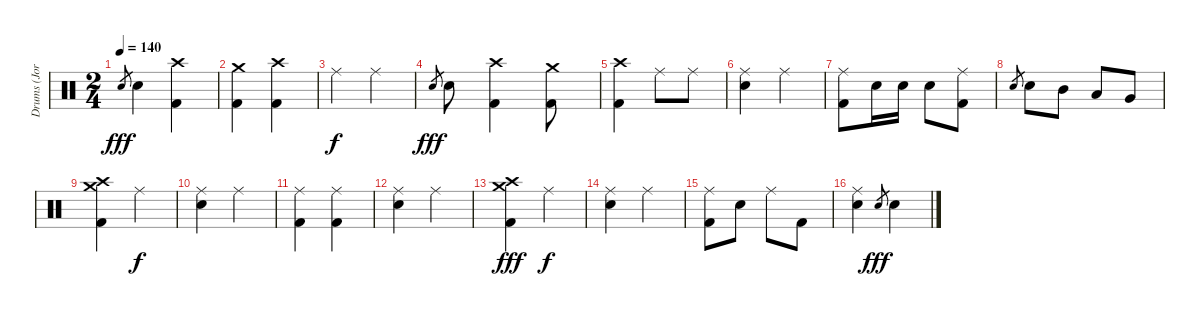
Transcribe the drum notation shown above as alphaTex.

\track ("Drums (Jordan Hastings)" "Drums (Jor") {instrument percussion}
\staff {score}
\articulation defaults
\ts (2 4)
\tempo 140
\clef neutral
\ks c "Electric Snare (hit)".8{gr dy fff} "Electric Snare (hit)".4
("Crash high (hit)" "Kick (hit) 2").4 |
("Crash medium (hit)" "Kick (hit) 2").4 ("Crash high (hit)" "Kick (hit) 2").4 |
"Ride (middle)".4{dy f} "Ride (middle)".4 |
"Electric Snare (hit)".8{gr dy fff} "Electric Snare (hit)".8 ("Crash high (hit)" "Kick (hit) 2").4 ("Crash medium (hit)" "Kick (hit) 2").8 |
("Crash high (hit)" "Kick (hit) 2").4 "Ride (middle)".8 "Ride (middle)".8 |
("Ride (middle)" "Electric Snare (hit)").4 "Ride (middle)".4 |
("Ride (middle)" "Kick (hit) 2").8 "Electric Snare (hit)".16 "Electric Snare (hit)".16 "Electric Snare (hit)".8 ("Ride (middle)" "Kick (hit) 2").8 |
"Electric Snare (hit)".8{gr} "Electric Snare (hit)".8 "Mid Tom (hit)".8 "Low Tom (hit)".8 "Very Low Tom (hit)".8 |
("Crash medium (hit)" "Crash high (hit)" "Kick (hit) 2").4 "Ride (middle)".4{dy f} |
("Ride (middle)" "Electric Snare (hit)").4 "Ride (middle)".4 |
("Ride (middle)" "Kick (hit) 2").4 ("Ride (middle)" "Kick (hit) 2").4 |
("Ride (middle)" "Electric Snare (hit)").4 "Ride (middle)".4 |
("Crash medium (hit)" "Crash high (hit)" "Kick (hit) 2").4{dy fff} "Ride (middle)".4{dy f} |
("Ride (middle)" "Electric Snare (hit)").4 "Ride (middle)".4 |
("Ride (middle)" "Kick (hit) 2").8 "Electric Snare (hit)".8 "Ride (middle)".8 "Kick (hit) 2".8 |
("Ride (middle)" "Electric Snare (hit)").4 "Electric Snare (hit)".8{gr dy fff} "Electric Snare (hit)".4
